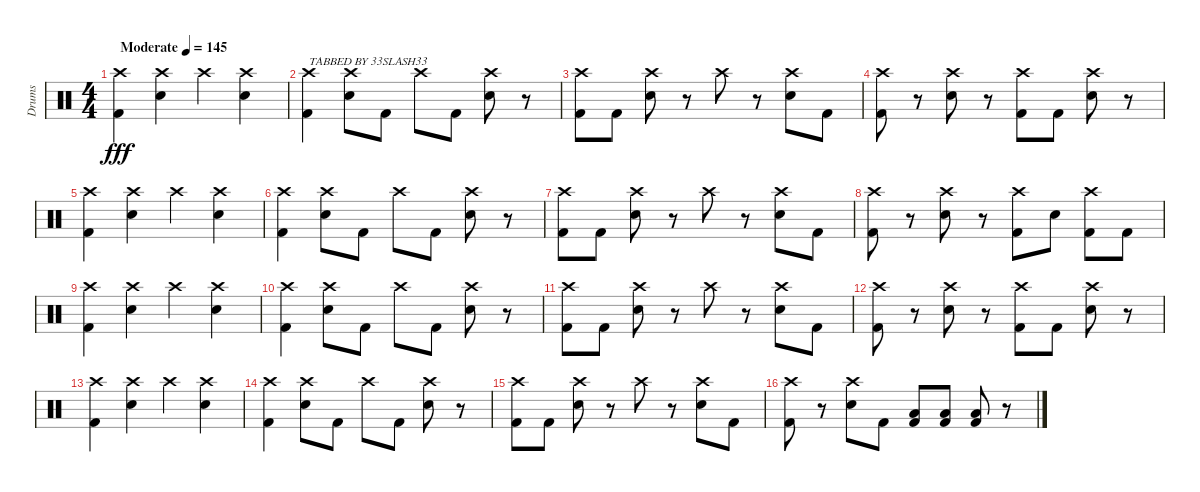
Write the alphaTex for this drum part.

\track ("Drums" "Drums") {instrument percussion}
\staff {score}
\articulation defaults
\ts (4 4)
\tempo (145 "Moderate")
\clef neutral
\ks c
("Crash high (hit)" "Kick (hit) 2").4{dy fff} ("Crash high (hit)" "Snare (hit) 2").4 "Crash high (hit)".4 ("Crash high (hit)" "Snare (hit) 2").4 |
("Crash high (hit)" "Kick (hit) 2").4{txt "TABBED BY 33SLASH33"} ("Crash high (hit)" "Snare (hit) 2").8 "Kick (hit) 2".8 "Crash high (hit)".8 "Kick (hit) 2".8 ("Crash high (hit)" "Snare (hit) 2").8 r.8 |
("Crash high (hit)" "Kick (hit) 2").8 "Kick (hit) 2".8 ("Crash high (hit)" "Snare (hit) 2").8 r.8 "Crash high (hit)".8 r.8 ("Crash high (hit)" "Snare (hit) 2").8 "Kick (hit) 2".8 |
("Crash high (hit)" "Kick (hit) 2").8 r.8 ("Crash high (hit)" "Snare (hit) 2").8 r.8 ("Crash high (hit)" "Kick (hit) 2").8 "Kick (hit) 2".8 ("Crash high (hit)" "Snare (hit) 2").8 r.8 |
("Crash high (hit)" "Kick (hit) 2").4 ("Crash high (hit)" "Snare (hit) 2").4 "Crash high (hit)".4 ("Crash high (hit)" "Snare (hit) 2").4 |
("Crash high (hit)" "Kick (hit) 2").4 ("Crash high (hit)" "Snare (hit) 2").8 "Kick (hit) 2".8 "Crash high (hit)".8 "Kick (hit) 2".8 ("Crash high (hit)" "Snare (hit) 2").8 r.8 |
("Crash high (hit)" "Kick (hit) 2").8 "Kick (hit) 2".8 ("Crash high (hit)" "Snare (hit) 2").8 r.8 "Crash high (hit)".8 r.8 ("Crash high (hit)" "Snare (hit) 2").8 "Kick (hit) 2".8 |
("Crash high (hit)" "Kick (hit) 2").8 r.8 ("Crash high (hit)" "Snare (hit) 2").8 r.8 ("Crash high (hit)" "Kick (hit) 2").8 "Snare (hit) 2".8 ("Crash high (hit)" "Kick (hit) 2").8 "Kick (hit) 2".8 |
("Crash high (hit)" "Kick (hit) 2").4 ("Crash high (hit)" "Snare (hit) 2").4 "Crash high (hit)".4 ("Crash high (hit)" "Snare (hit) 2").4 |
("Crash high (hit)" "Kick (hit) 2").4 ("Crash high (hit)" "Snare (hit) 2").8 "Kick (hit) 2".8 "Crash high (hit)".8 "Kick (hit) 2".8 ("Crash high (hit)" "Snare (hit) 2").8 r.8 |
("Crash high (hit)" "Kick (hit) 2").8 "Kick (hit) 2".8 ("Crash high (hit)" "Snare (hit) 2").8 r.8 "Crash high (hit)".8 r.8 ("Crash high (hit)" "Snare (hit) 2").8 "Kick (hit) 2".8 |
("Crash high (hit)" "Kick (hit) 2").8 r.8 ("Crash high (hit)" "Snare (hit) 2").8 r.8 ("Crash high (hit)" "Kick (hit) 2").8 "Kick (hit) 2".8 ("Crash high (hit)" "Snare (hit) 2").8 r.8 |
("Crash high (hit)" "Kick (hit) 2").4 ("Crash high (hit)" "Snare (hit) 2").4 "Crash high (hit)".4 ("Crash high (hit)" "Snare (hit) 2").4 |
("Crash high (hit)" "Kick (hit) 2").4 ("Crash high (hit)" "Snare (hit) 2").8 "Kick (hit) 2".8 "Crash high (hit)".8 "Kick (hit) 2".8 ("Crash high (hit)" "Snare (hit) 2").8 r.8 |
("Crash high (hit)" "Kick (hit) 2").8 "Kick (hit) 2".8 ("Crash high (hit)" "Snare (hit) 2").8 r.8 "Crash high (hit)".8 r.8 ("Crash high (hit)" "Snare (hit) 2").8 "Kick (hit) 2".8 |
("Crash high (hit)" "Kick (hit) 2").8 r.8 ("Crash high (hit)" "Snare (hit) 2").8 "Kick (hit) 2".8 ("Low Floor Tom (hit)" "Kick (hit) 2").8 ("Low Floor Tom (hit)" "Kick (hit) 2").8 ("Low Floor Tom (hit)" "Kick (hit) 2").8 r.8
